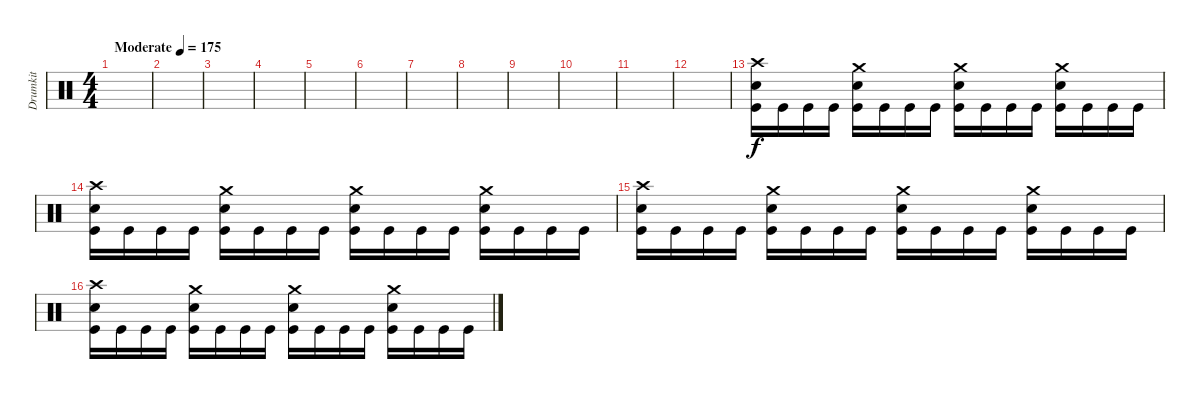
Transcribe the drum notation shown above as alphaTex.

\track ("Drumkit" "Drumkit") {instrument percussion}
\staff {score}
\articulation defaults
\ts (4 4)
\tempo (175 "Moderate")
\clef neutral
\ks c
|
|
|
|
|
|
|
|
|
|
|
|
("Crash high (hit)" "Snare (hit) 2" "Kick (hit)").16 "Kick (hit)".16 "Kick (hit)".16 "Kick (hit)".16 ("Crash medium (hit)" "Snare (hit) 2" "Kick (hit)").16 "Kick (hit)".16 "Kick (hit)".16 "Kick (hit)".16 ("Crash medium (hit)" "Snare (hit) 2" "Kick (hit)").16 "Kick (hit)".16 "Kick (hit)".16 "Kick (hit)".16 ("Crash medium (hit)" "Snare (hit) 2" "Kick (hit)").16 "Kick (hit)".16 "Kick (hit)".16 "Kick (hit)".16 |
("Crash high (hit)" "Snare (hit) 2" "Kick (hit)").16 "Kick (hit)".16 "Kick (hit)".16 "Kick (hit)".16 ("Crash medium (hit)" "Snare (hit) 2" "Kick (hit)").16 "Kick (hit)".16 "Kick (hit)".16 "Kick (hit)".16 ("Crash medium (hit)" "Snare (hit) 2" "Kick (hit)").16 "Kick (hit)".16 "Kick (hit)".16 "Kick (hit)".16 ("Crash medium (hit)" "Snare (hit) 2" "Kick (hit)").16 "Kick (hit)".16 "Kick (hit)".16 "Kick (hit)".16 |
("Crash high (hit)" "Snare (hit) 2" "Kick (hit)").16 "Kick (hit)".16 "Kick (hit)".16 "Kick (hit)".16 ("Crash medium (hit)" "Snare (hit) 2" "Kick (hit)").16 "Kick (hit)".16 "Kick (hit)".16 "Kick (hit)".16 ("Crash medium (hit)" "Snare (hit) 2" "Kick (hit)").16 "Kick (hit)".16 "Kick (hit)".16 "Kick (hit)".16 ("Crash medium (hit)" "Snare (hit) 2" "Kick (hit)").16 "Kick (hit)".16 "Kick (hit)".16 "Kick (hit)".16 |
("Crash high (hit)" "Snare (hit) 2" "Kick (hit)").16 "Kick (hit)".16 "Kick (hit)".16 "Kick (hit)".16 ("Crash medium (hit)" "Snare (hit) 2" "Kick (hit)").16 "Kick (hit)".16 "Kick (hit)".16 "Kick (hit)".16 ("Crash medium (hit)" "Snare (hit) 2" "Kick (hit)").16 "Kick (hit)".16 "Kick (hit)".16 "Kick (hit)".16 ("Crash medium (hit)" "Snare (hit) 2" "Kick (hit)").16 "Kick (hit)".16 "Kick (hit)".16 "Kick (hit)".16
